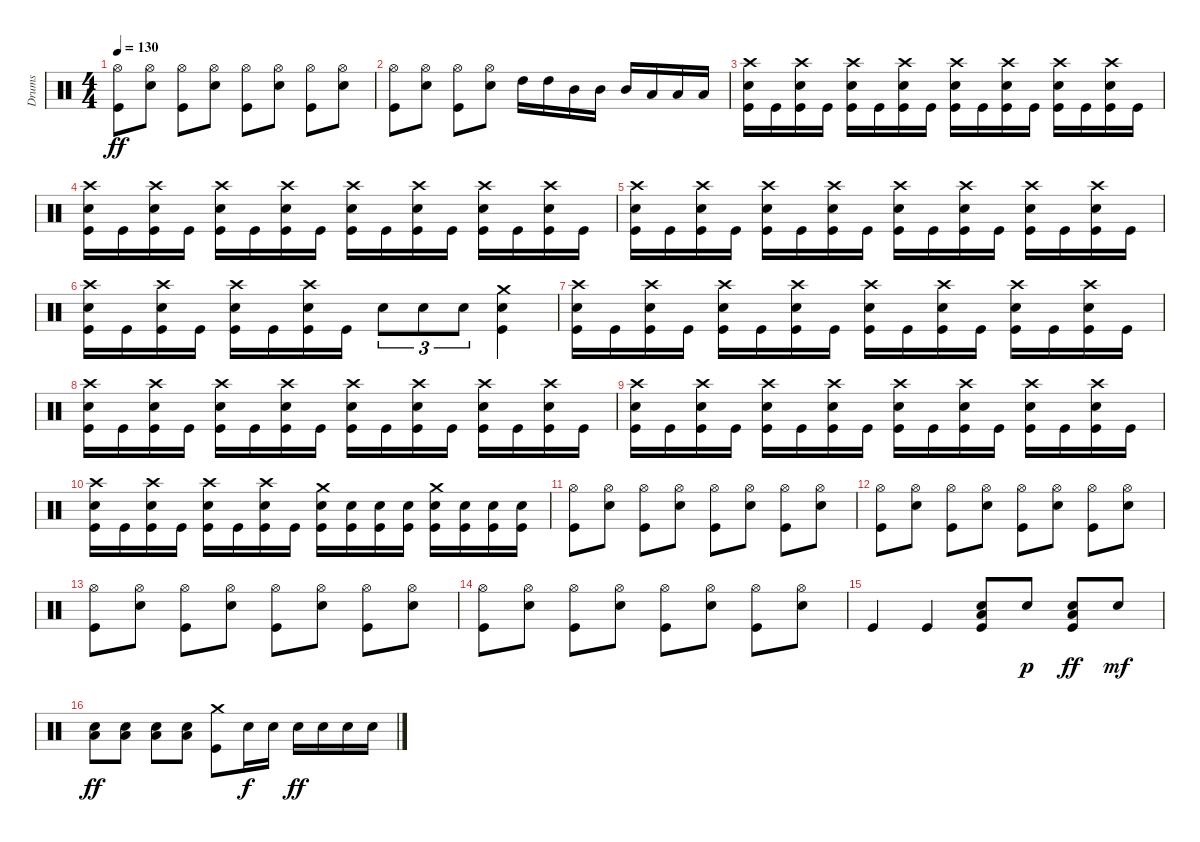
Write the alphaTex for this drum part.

\track ("Drums" "Drums") {instrument percussion}
\staff {score}
\articulation defaults
\ts (4 4)
\tempo 130
\clef neutral
\ks c
("Hi-Hat (open)" "Kick (hit)").8{dy ff} ("Hi-Hat (open)" "Electric Snare (hit)").8 ("Hi-Hat (open)" "Kick (hit)").8 ("Hi-Hat (open)" "Electric Snare (hit)").8 ("Hi-Hat (open)" "Kick (hit)").8 ("Hi-Hat (open)" "Electric Snare (hit)").8 ("Hi-Hat (open)" "Kick (hit)").8 ("Hi-Hat (open)" "Electric Snare (hit)").8 |
("Hi-Hat (open)" "Kick (hit)").8 ("Hi-Hat (open)" "Electric Snare (hit)").8 ("Hi-Hat (open)" "Kick (hit)").8 ("Hi-Hat (open)" "Electric Snare (hit)").8 "High Tom (hit)".16 "High Tom (hit)".16 "Mid Tom (hit)".16 "Mid Tom (hit)".16 "Mid Tom (hit)".16 "Low Tom (hit)".16 "Low Tom (hit)".16 "Low Floor Tom (hit)".16 |
("Crash high (hit)" "Electric Snare (hit)" "Kick (hit)").16 "Kick (hit)".16 ("Crash high (hit)" "Electric Snare (hit)" "Kick (hit)").16 "Kick (hit)".16 ("Crash high (hit)" "Electric Snare (hit)" "Kick (hit)").16 "Kick (hit)".16 ("Crash high (hit)" "Electric Snare (hit)" "Kick (hit)").16 "Kick (hit)".16 ("Crash high (hit)" "Electric Snare (hit)" "Kick (hit)").16 "Kick (hit)".16 ("Crash high (hit)" "Electric Snare (hit)" "Kick (hit)").16 "Kick (hit)".16 ("Crash high (hit)" "Electric Snare (hit)" "Kick (hit)").16 "Kick (hit)".16 ("Crash high (hit)" "Electric Snare (hit)" "Kick (hit)").16 "Kick (hit)".16 |
("Crash high (hit)" "Electric Snare (hit)" "Kick (hit)").16 "Kick (hit)".16 ("Crash high (hit)" "Electric Snare (hit)" "Kick (hit)").16 "Kick (hit)".16 ("Crash high (hit)" "Electric Snare (hit)" "Kick (hit)").16 "Kick (hit)".16 ("Crash high (hit)" "Electric Snare (hit)" "Kick (hit)").16 "Kick (hit)".16 ("Crash high (hit)" "Electric Snare (hit)" "Kick (hit)").16 "Kick (hit)".16 ("Crash high (hit)" "Electric Snare (hit)" "Kick (hit)").16 "Kick (hit)".16 ("Crash high (hit)" "Electric Snare (hit)" "Kick (hit)").16 "Kick (hit)".16 ("Crash high (hit)" "Electric Snare (hit)" "Kick (hit)").16 "Kick (hit)".16 |
("Crash high (hit)" "Electric Snare (hit)" "Kick (hit)").16 "Kick (hit)".16 ("Crash high (hit)" "Electric Snare (hit)" "Kick (hit)").16 "Kick (hit)".16 ("Crash high (hit)" "Electric Snare (hit)" "Kick (hit)").16 "Kick (hit)".16 ("Crash high (hit)" "Electric Snare (hit)" "Kick (hit)").16 "Kick (hit)".16 ("Crash high (hit)" "Electric Snare (hit)" "Kick (hit)").16 "Kick (hit)".16 ("Crash high (hit)" "Electric Snare (hit)" "Kick (hit)").16 "Kick (hit)".16 ("Crash high (hit)" "Electric Snare (hit)" "Kick (hit)").16 "Kick (hit)".16 ("Crash high (hit)" "Electric Snare (hit)" "Kick (hit)").16 "Kick (hit)".16 |
("Crash high (hit)" "Electric Snare (hit)" "Kick (hit)").16 "Kick (hit)".16 ("Crash high (hit)" "Electric Snare (hit)" "Kick (hit)").16 "Kick (hit)".16 ("Crash high (hit)" "Electric Snare (hit)" "Kick (hit)").16 "Kick (hit)".16 ("Crash high (hit)" "Electric Snare (hit)" "Kick (hit)").16 "Kick (hit)".16 "Electric Snare (hit)".8{tu (3 2)} "Electric Snare (hit)".8{tu (3 2)} "Electric Snare (hit)".8{tu (3 2)} ("Crash medium (hit)" "Electric Snare (hit)" "Kick (hit)").4 |
("Crash high (hit)" "Electric Snare (hit)" "Kick (hit)").16 "Kick (hit)".16 ("Crash high (hit)" "Electric Snare (hit)" "Kick (hit)").16 "Kick (hit)".16 ("Crash high (hit)" "Electric Snare (hit)" "Kick (hit)").16 "Kick (hit)".16 ("Crash high (hit)" "Electric Snare (hit)" "Kick (hit)").16 "Kick (hit)".16 ("Crash high (hit)" "Electric Snare (hit)" "Kick (hit)").16 "Kick (hit)".16 ("Crash high (hit)" "Electric Snare (hit)" "Kick (hit)").16 "Kick (hit)".16 ("Crash high (hit)" "Electric Snare (hit)" "Kick (hit)").16 "Kick (hit)".16 ("Crash high (hit)" "Electric Snare (hit)" "Kick (hit)").16 "Kick (hit)".16 |
("Crash high (hit)" "Electric Snare (hit)" "Kick (hit)").16 "Kick (hit)".16 ("Crash high (hit)" "Electric Snare (hit)" "Kick (hit)").16 "Kick (hit)".16 ("Crash high (hit)" "Electric Snare (hit)" "Kick (hit)").16 "Kick (hit)".16 ("Crash high (hit)" "Electric Snare (hit)" "Kick (hit)").16 "Kick (hit)".16 ("Crash high (hit)" "Electric Snare (hit)" "Kick (hit)").16 "Kick (hit)".16 ("Crash high (hit)" "Electric Snare (hit)" "Kick (hit)").16 "Kick (hit)".16 ("Crash high (hit)" "Electric Snare (hit)" "Kick (hit)").16 "Kick (hit)".16 ("Crash high (hit)" "Electric Snare (hit)" "Kick (hit)").16 "Kick (hit)".16 |
("Crash high (hit)" "Electric Snare (hit)" "Kick (hit)").16 "Kick (hit)".16 ("Crash high (hit)" "Electric Snare (hit)" "Kick (hit)").16 "Kick (hit)".16 ("Crash high (hit)" "Electric Snare (hit)" "Kick (hit)").16 "Kick (hit)".16 ("Crash high (hit)" "Electric Snare (hit)" "Kick (hit)").16 "Kick (hit)".16 ("Crash high (hit)" "Electric Snare (hit)" "Kick (hit)").16 "Kick (hit)".16 ("Crash high (hit)" "Electric Snare (hit)" "Kick (hit)").16 "Kick (hit)".16 ("Crash high (hit)" "Electric Snare (hit)" "Kick (hit)").16 "Kick (hit)".16 ("Crash high (hit)" "Electric Snare (hit)" "Kick (hit)").16 "Kick (hit)".16 |
("Crash high (hit)" "Electric Snare (hit)" "Kick (hit)").16 "Kick (hit)".16 ("Crash high (hit)" "Electric Snare (hit)" "Kick (hit)").16 "Kick (hit)".16 ("Crash high (hit)" "Electric Snare (hit)" "Kick (hit)").16 "Kick (hit)".16 ("Crash high (hit)" "Electric Snare (hit)" "Kick (hit)").16 "Kick (hit)".16 ("Crash medium (hit)" "Electric Snare (hit)" "Kick (hit)").16 ("Electric Snare (hit)" "Kick (hit)").16 ("Electric Snare (hit)" "Kick (hit)").16 ("Electric Snare (hit)" "Kick (hit)").16 ("Crash medium (hit)" "Electric Snare (hit)" "Kick (hit)").16 ("Electric Snare (hit)" "Kick (hit)").16 ("Electric Snare (hit)" "Kick (hit)").16 ("Electric Snare (hit)" "Kick (hit)").16 |
("Hi-Hat (open)" "Kick (hit)").8 ("Hi-Hat (open)" "Electric Snare (hit)").8 ("Hi-Hat (open)" "Kick (hit)").8 ("Hi-Hat (open)" "Electric Snare (hit)").8 ("Hi-Hat (open)" "Kick (hit)").8 ("Hi-Hat (open)" "Electric Snare (hit)").8 ("Hi-Hat (open)" "Kick (hit)").8 ("Hi-Hat (open)" "Electric Snare (hit)").8 |
("Hi-Hat (open)" "Kick (hit)").8 ("Hi-Hat (open)" "Electric Snare (hit)").8 ("Hi-Hat (open)" "Kick (hit)").8 ("Hi-Hat (open)" "Electric Snare (hit)").8 ("Hi-Hat (open)" "Kick (hit)").8 ("Hi-Hat (open)" "Electric Snare (hit)").8 ("Hi-Hat (open)" "Kick (hit)").8 ("Hi-Hat (open)" "Electric Snare (hit)").8 |
("Hi-Hat (open)" "Kick (hit)").8 ("Hi-Hat (open)" "Electric Snare (hit)").8 ("Hi-Hat (open)" "Kick (hit)").8 ("Hi-Hat (open)" "Electric Snare (hit)").8 ("Hi-Hat (open)" "Kick (hit)").8 ("Hi-Hat (open)" "Electric Snare (hit)").8 ("Hi-Hat (open)" "Kick (hit)").8 ("Hi-Hat (open)" "Electric Snare (hit)").8 |
("Hi-Hat (open)" "Kick (hit)").8 ("Hi-Hat (open)" "Electric Snare (hit)").8 ("Hi-Hat (open)" "Kick (hit)").8 ("Hi-Hat (open)" "Electric Snare (hit)").8 ("Hi-Hat (open)" "Kick (hit)").8 ("Hi-Hat (open)" "Electric Snare (hit)").8 ("Hi-Hat (open)" "Kick (hit)").8 ("Hi-Hat (open)" "Electric Snare (hit)").8 |
"Kick (hit)".4 "Kick (hit)".4 ("Electric Snare (hit)" "Low Floor Tom (hit)" "Kick (hit)").8 "Electric Snare (hit)".8{dy p} ("Electric Snare (hit)" "Low Floor Tom (hit)" "Kick (hit)").8{dy ff} "Electric Snare (hit)".8{dy mf} |
("Low Tom (hit)" "Electric Snare (hit)").8{dy ff} ("Low Tom (hit)" "Electric Snare (hit)").8 ("Low Tom (hit)" "Electric Snare (hit)").8 ("Low Tom (hit)" "Electric Snare (hit)").8 ("Crash medium (hit)" "Kick (hit)").8 "Electric Snare (hit)".16{dy f} "Electric Snare (hit)".16 "Electric Snare (hit)".16{dy ff} "Electric Snare (hit)".16 "Electric Snare (hit)".16 "Electric Snare (hit)".16
